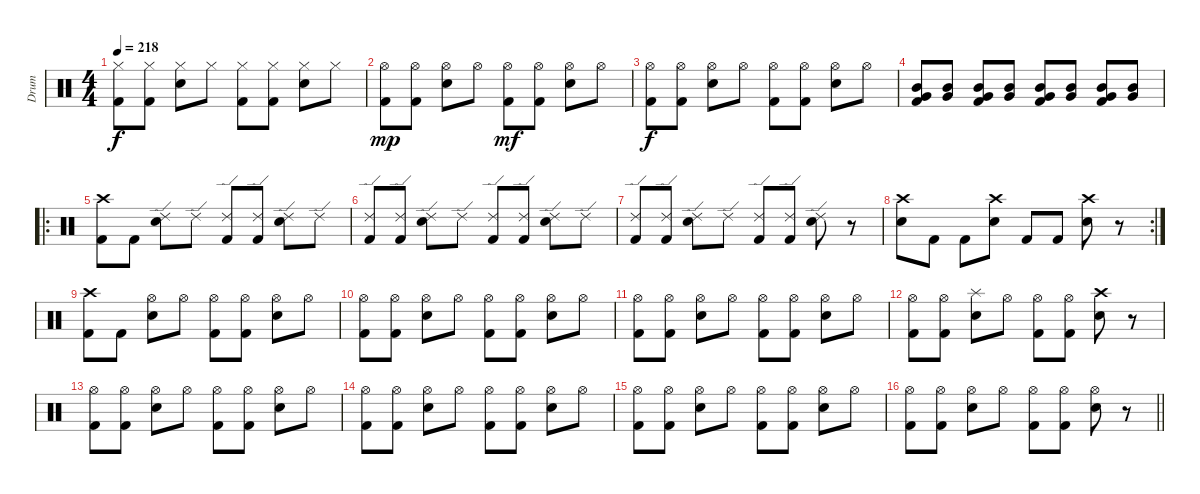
\track ("Drum" "Drum") {instrument percussion}
\staff {score}
\articulation defaults
\ts (4 4)
\tempo 218
\clef neutral
\ks c
("Kick (hit) 2" "Hi-Hat (closed)").8{dy f} ("Kick (hit) 2" "Hi-Hat (closed)").8 ("Snare (hit) 2" "Hi-Hat (closed)").8 "Hi-Hat (closed)".8 ("Kick (hit) 2" "Hi-Hat (closed)").8 ("Kick (hit) 2" "Hi-Hat (closed)").8 ("Snare (hit) 2" "Hi-Hat (closed)").8 "Hi-Hat (closed)".8 |
("Kick (hit) 2" "Hi-Hat (open)").8{dy mp} ("Kick (hit) 2" "Hi-Hat (open)").8 ("Snare (hit) 2" "Hi-Hat (open)").8 "Hi-Hat (open)".8 ("Kick (hit) 2" "Hi-Hat (open)").8{dy mf} ("Kick (hit) 2" "Hi-Hat (open)").8 ("Snare (hit) 2" "Hi-Hat (open)").8 "Hi-Hat (open)".8 |
("Kick (hit) 2" "Hi-Hat (open)").8{dy f} ("Kick (hit) 2" "Hi-Hat (open)").8 ("Snare (hit) 2" "Hi-Hat (open)").8 "Hi-Hat (open)".8 ("Kick (hit) 2" "Hi-Hat (open)").8 ("Kick (hit) 2" "Hi-Hat (open)").8 ("Snare (hit) 2" "Hi-Hat (open)").8 "Hi-Hat (open)".8 |
("Mid Tom (hit)" "Very Low Tom (hit)" "Kick (hit) 2").8 ("Mid Tom (hit)" "Very Low Tom (hit)").8 ("Mid Tom (hit)" "Very Low Tom (hit)" "Kick (hit) 2").8 ("Mid Tom (hit)" "Very Low Tom (hit)").8 ("Mid Tom (hit)" "Very Low Tom (hit)" "Kick (hit) 2").8 ("Mid Tom (hit)" "Very Low Tom (hit)").8 ("Mid Tom (hit)" "Very Low Tom (hit)" "Kick (hit) 2").8 ("Mid Tom (hit)" "Very Low Tom (hit)").8 |
\ro
("Kick (hit) 2" "Crash high (hit)").8 "Kick (hit) 2".8 ("Snare (hit) 2" "Ride (edge) 2").8 "Ride (edge) 2".8 ("Kick (hit) 2" "Ride (edge) 2").8 ("Kick (hit) 2" "Ride (edge) 2").8 ("Snare (hit) 2" "Ride (edge) 2").8 "Ride (edge) 2".8 |
("Kick (hit) 2" "Ride (edge) 2").8 ("Kick (hit) 2" "Ride (edge) 2").8 ("Snare (hit) 2" "Ride (edge) 2").8 "Ride (edge) 2".8 ("Kick (hit) 2" "Ride (edge) 2").8 ("Kick (hit) 2" "Ride (edge) 2").8 ("Snare (hit) 2" "Ride (edge) 2").8 "Ride (edge) 2".8 |
("Kick (hit) 2" "Ride (edge) 2").8 ("Kick (hit) 2" "Ride (edge) 2").8 ("Snare (hit) 2" "Ride (edge) 2").8 "Ride (edge) 2".8 ("Kick (hit) 2" "Ride (edge) 2").8 ("Kick (hit) 2" "Ride (edge) 2").8 ("Snare (hit) 2" "Ride (edge) 2").8 r.8 |
\rc 2
("Snare (hit) 2" "Crash high (hit)").8 "Kick (hit) 2".8 "Kick (hit) 2".8 ("Snare (hit) 2" "Crash high (hit)").8 "Kick (hit) 2".8 "Kick (hit) 2".8 ("Snare (hit) 2" "Crash high (hit)").8 r.8 |
("Kick (hit) 2" "Crash high (hit)").8 "Kick (hit) 2".8 ("Snare (hit) 2" "Hi-Hat (open)").8 "Hi-Hat (open)".8 ("Kick (hit) 2" "Hi-Hat (open)").8 ("Kick (hit) 2" "Hi-Hat (open)").8 ("Snare (hit) 2" "Hi-Hat (open)").8 "Hi-Hat (open)".8 |
("Kick (hit) 2" "Hi-Hat (open)").8 ("Kick (hit) 2" "Hi-Hat (open)").8 ("Snare (hit) 2" "Hi-Hat (open)").8 "Hi-Hat (open)".8 ("Kick (hit) 2" "Hi-Hat (open)").8 ("Kick (hit) 2" "Hi-Hat (open)").8 ("Snare (hit) 2" "Hi-Hat (open)").8 "Hi-Hat (open)".8 |
("Kick (hit) 2" "Hi-Hat (open)").8 ("Kick (hit) 2" "Hi-Hat (open)").8 ("Snare (hit) 2" "Hi-Hat (open)").8 "Hi-Hat (open)".8 ("Kick (hit) 2" "Hi-Hat (open)").8 ("Kick (hit) 2" "Hi-Hat (open)").8 ("Snare (hit) 2" "Hi-Hat (open)").8 "Hi-Hat (open)".8 |
("Kick (hit) 2" "Hi-Hat (open)").8 ("Kick (hit) 2" "Hi-Hat (open)").8 ("Snare (hit) 2" "Splash (hit)").8 "Hi-Hat (open)".8 ("Kick (hit) 2" "Hi-Hat (open)").8 ("Kick (hit) 2" "Hi-Hat (open)").8 ("Snare (hit) 2" "Crash high (hit)").8 r.8 |
("Kick (hit) 2" "Hi-Hat (open)").8 ("Kick (hit) 2" "Hi-Hat (open)").8 ("Snare (hit) 2" "Hi-Hat (open)").8 "Hi-Hat (open)".8 ("Kick (hit) 2" "Hi-Hat (open)").8 ("Kick (hit) 2" "Hi-Hat (open)").8 ("Snare (hit) 2" "Hi-Hat (open)").8 "Hi-Hat (open)".8 |
("Kick (hit) 2" "Hi-Hat (open)").8 ("Kick (hit) 2" "Hi-Hat (open)").8 ("Snare (hit) 2" "Hi-Hat (open)").8 "Hi-Hat (open)".8 ("Kick (hit) 2" "Hi-Hat (open)").8 ("Kick (hit) 2" "Hi-Hat (open)").8 ("Snare (hit) 2" "Hi-Hat (open)").8 "Hi-Hat (open)".8 |
("Kick (hit) 2" "Hi-Hat (open)").8 ("Kick (hit) 2" "Hi-Hat (open)").8 ("Snare (hit) 2" "Hi-Hat (open)").8 "Hi-Hat (open)".8 ("Kick (hit) 2" "Hi-Hat (open)").8 ("Kick (hit) 2" "Hi-Hat (open)").8 ("Snare (hit) 2" "Hi-Hat (open)").8 "Hi-Hat (open)".8 |
\barLineRight lightlight
("Kick (hit) 2" "Hi-Hat (open)").8 ("Kick (hit) 2" "Hi-Hat (open)").8 ("Snare (hit) 2" "Hi-Hat (open)").8 "Hi-Hat (open)".8 ("Kick (hit) 2" "Hi-Hat (open)").8 ("Kick (hit) 2" "Hi-Hat (open)").8 ("Snare (hit) 2" "Hi-Hat (open)").8 r.8
